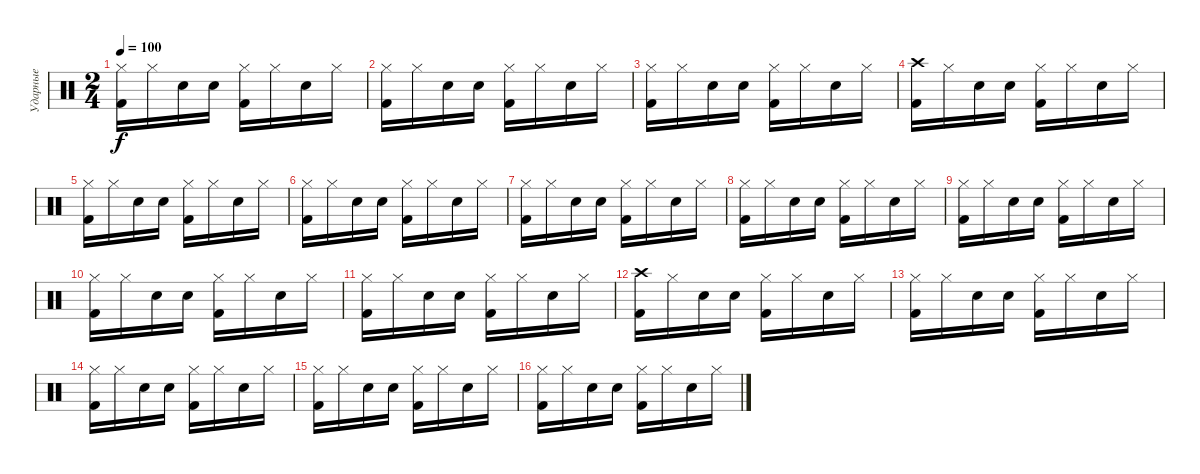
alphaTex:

\track ("Ударные" "Ударные") {instrument percussion}
\staff {score}
\articulation defaults
\ts (2 4)
\tempo 100
\clef neutral
\ks c
("Hi-Hat (closed)" "Kick (hit) 2").16{dy f} "Hi-Hat (closed)".16 "Electric Snare (hit)".16 "Electric Snare (hit)".16 ("Kick (hit) 2" "Hi-Hat (closed)").16 "Hi-Hat (closed)".16 "Electric Snare (hit)".16 "Hi-Hat (closed)".16 |
("Hi-Hat (closed)" "Kick (hit) 2").16 "Hi-Hat (closed)".16 "Electric Snare (hit)".16 "Electric Snare (hit)".16 ("Kick (hit) 2" "Hi-Hat (closed)").16 "Hi-Hat (closed)".16 "Electric Snare (hit)".16 "Hi-Hat (closed)".16 |
("Hi-Hat (closed)" "Kick (hit) 2").16 "Hi-Hat (closed)".16 "Electric Snare (hit)".16 "Electric Snare (hit)".16 ("Kick (hit) 2" "Hi-Hat (closed)").16 "Hi-Hat (closed)".16 "Electric Snare (hit)".16 "Hi-Hat (closed)".16 |
("Crash high (hit)" "Kick (hit) 2").16 "Hi-Hat (closed)".16 "Electric Snare (hit)".16 "Electric Snare (hit)".16 ("Kick (hit) 2" "Hi-Hat (closed)").16 "Hi-Hat (closed)".16 "Electric Snare (hit)".16 "Hi-Hat (closed)".16 |
("Hi-Hat (closed)" "Kick (hit) 2").16 "Hi-Hat (closed)".16 "Electric Snare (hit)".16 "Electric Snare (hit)".16 ("Kick (hit) 2" "Hi-Hat (closed)").16 "Hi-Hat (closed)".16 "Electric Snare (hit)".16 "Hi-Hat (closed)".16 |
("Hi-Hat (closed)" "Kick (hit) 2").16 "Hi-Hat (closed)".16 "Electric Snare (hit)".16 "Electric Snare (hit)".16 ("Kick (hit) 2" "Hi-Hat (closed)").16 "Hi-Hat (closed)".16 "Electric Snare (hit)".16 "Hi-Hat (closed)".16 |
("Hi-Hat (closed)" "Kick (hit) 2").16 "Hi-Hat (closed)".16 "Electric Snare (hit)".16 "Electric Snare (hit)".16 ("Kick (hit) 2" "Hi-Hat (closed)").16 "Hi-Hat (closed)".16 "Electric Snare (hit)".16 "Hi-Hat (closed)".16 |
("Hi-Hat (closed)" "Kick (hit) 2").16 "Hi-Hat (closed)".16 "Electric Snare (hit)".16 "Electric Snare (hit)".16 ("Kick (hit) 2" "Hi-Hat (closed)").16 "Hi-Hat (closed)".16 "Electric Snare (hit)".16 "Hi-Hat (closed)".16 |
("Hi-Hat (closed)" "Kick (hit) 2").16 "Hi-Hat (closed)".16 "Electric Snare (hit)".16 "Electric Snare (hit)".16 ("Kick (hit) 2" "Hi-Hat (closed)").16 "Hi-Hat (closed)".16 "Electric Snare (hit)".16 "Hi-Hat (closed)".16 |
("Hi-Hat (closed)" "Kick (hit) 2").16 "Hi-Hat (closed)".16 "Electric Snare (hit)".16 "Electric Snare (hit)".16 ("Kick (hit) 2" "Hi-Hat (closed)").16 "Hi-Hat (closed)".16 "Electric Snare (hit)".16 "Hi-Hat (closed)".16 |
("Hi-Hat (closed)" "Kick (hit) 2").16 "Hi-Hat (closed)".16 "Electric Snare (hit)".16 "Electric Snare (hit)".16 ("Kick (hit) 2" "Hi-Hat (closed)").16 "Hi-Hat (closed)".16 "Electric Snare (hit)".16 "Hi-Hat (closed)".16 |
("Crash high (hit)" "Kick (hit) 2").16 "Hi-Hat (closed)".16 "Electric Snare (hit)".16 "Electric Snare (hit)".16 ("Kick (hit) 2" "Hi-Hat (closed)").16 "Hi-Hat (closed)".16 "Electric Snare (hit)".16 "Hi-Hat (closed)".16 |
("Hi-Hat (closed)" "Kick (hit) 2").16 "Hi-Hat (closed)".16 "Electric Snare (hit)".16 "Electric Snare (hit)".16 ("Kick (hit) 2" "Hi-Hat (closed)").16 "Hi-Hat (closed)".16 "Electric Snare (hit)".16 "Hi-Hat (closed)".16 |
("Hi-Hat (closed)" "Kick (hit) 2").16 "Hi-Hat (closed)".16 "Electric Snare (hit)".16 "Electric Snare (hit)".16 ("Kick (hit) 2" "Hi-Hat (closed)").16 "Hi-Hat (closed)".16 "Electric Snare (hit)".16 "Hi-Hat (closed)".16 |
("Hi-Hat (closed)" "Kick (hit) 2").16 "Hi-Hat (closed)".16 "Electric Snare (hit)".16 "Electric Snare (hit)".16 ("Kick (hit) 2" "Hi-Hat (closed)").16 "Hi-Hat (closed)".16 "Electric Snare (hit)".16 "Hi-Hat (closed)".16 |
("Hi-Hat (closed)" "Kick (hit) 2").16 "Hi-Hat (closed)".16 "Electric Snare (hit)".16 "Electric Snare (hit)".16 ("Kick (hit) 2" "Hi-Hat (closed)").16 "Hi-Hat (closed)".16 "Electric Snare (hit)".16 "Hi-Hat (closed)".16
